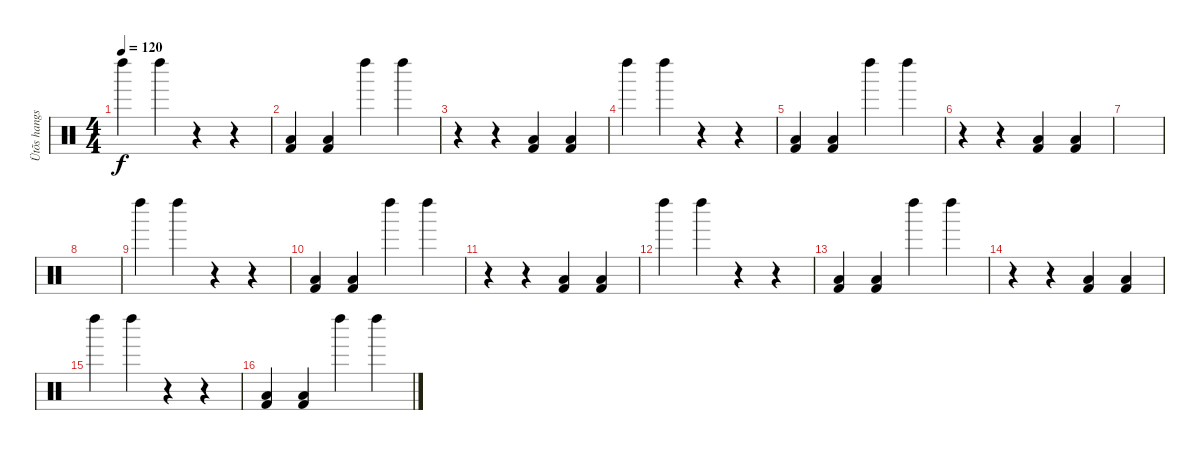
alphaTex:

\track ("Ütõs hangszer" "Ütõs hangs") {instrument percussion}
\staff {score}
\articulation defaults
\ts (4 4)
\tempo 120
\clef neutral
\ks c "Left Maraca (hit)".4{dy f} "Left Maraca (hit)".4
r.4 r.4 |
("Kick (hit) 2" "Low Floor Tom (hit)").4 ("Kick (hit) 2" "Low Floor Tom (hit)").4 "Left Maraca (hit)".4 "Left Maraca (hit)".4 |
r.4 r.4 ("Kick (hit) 2" "Low Floor Tom (hit)").4 ("Kick (hit) 2" "Low Floor Tom (hit)").4 |
"Left Maraca (hit)".4 "Left Maraca (hit)".4 r.4 r.4 |
("Kick (hit) 2" "Low Floor Tom (hit)").4 ("Kick (hit) 2" "Low Floor Tom (hit)").4 "Left Maraca (hit)".4 "Left Maraca (hit)".4 |
r.4 r.4 ("Kick (hit) 2" "Low Floor Tom (hit)").4 ("Kick (hit) 2" "Low Floor Tom (hit)").4 |
|
|
"Left Maraca (hit)".4 "Left Maraca (hit)".4 r.4 r.4 |
("Kick (hit) 2" "Low Floor Tom (hit)").4 ("Kick (hit) 2" "Low Floor Tom (hit)").4 "Left Maraca (hit)".4 "Left Maraca (hit)".4 |
r.4 r.4 ("Kick (hit) 2" "Low Floor Tom (hit)").4 ("Kick (hit) 2" "Low Floor Tom (hit)").4 |
"Left Maraca (hit)".4 "Left Maraca (hit)".4 r.4 r.4 |
("Kick (hit) 2" "Low Floor Tom (hit)").4 ("Kick (hit) 2" "Low Floor Tom (hit)").4 "Left Maraca (hit)".4 "Left Maraca (hit)".4 |
r.4 r.4 ("Kick (hit) 2" "Low Floor Tom (hit)").4 ("Kick (hit) 2" "Low Floor Tom (hit)").4 |
"Left Maraca (hit)".4 "Left Maraca (hit)".4 r.4 r.4 |
("Kick (hit) 2" "Low Floor Tom (hit)").4 ("Kick (hit) 2" "Low Floor Tom (hit)").4 "Left Maraca (hit)".4 "Left Maraca (hit)".4
